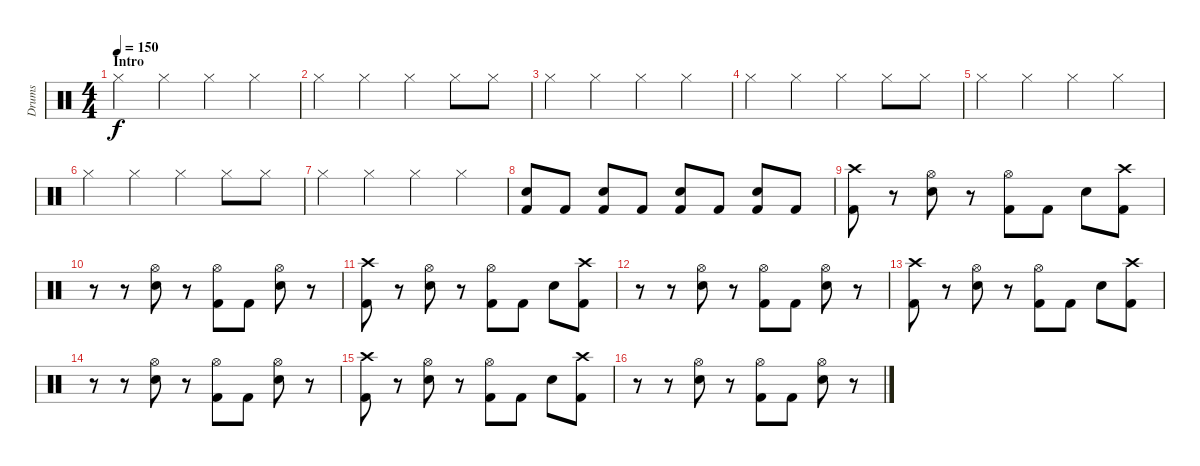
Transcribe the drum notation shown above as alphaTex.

\track ("Drums" "Drums") {instrument percussion}
\staff {score}
\articulation defaults
\ts (4 4)
\section ("" "Intro")
\tempo 150
\clef neutral
\ks c "Hi-Hat (closed)".4{dy f} "Hi-Hat (closed)".4 "Hi-Hat (closed)".4 "Hi-Hat (closed)".4
|
"Hi-Hat (closed)".4 "Hi-Hat (closed)".4 "Hi-Hat (closed)".4 "Hi-Hat (closed)".8 "Hi-Hat (closed)".8 |
"Hi-Hat (closed)".4 "Hi-Hat (closed)".4 "Hi-Hat (closed)".4 "Hi-Hat (closed)".4 |
"Hi-Hat (closed)".4 "Hi-Hat (closed)".4 "Hi-Hat (closed)".4 "Hi-Hat (closed)".8 "Hi-Hat (closed)".8 |
"Hi-Hat (closed)".4 "Hi-Hat (closed)".4 "Hi-Hat (closed)".4 "Hi-Hat (closed)".4 |
"Hi-Hat (closed)".4 "Hi-Hat (closed)".4 "Hi-Hat (closed)".4 "Hi-Hat (closed)".8 "Hi-Hat (closed)".8 |
"Hi-Hat (closed)".4 "Hi-Hat (closed)".4 "Hi-Hat (closed)".4 "Hi-Hat (closed)".4 |
("Electric Snare (hit)" "Kick (hit) 2").8 "Kick (hit) 2".8 ("Electric Snare (hit)" "Kick (hit) 2").8 "Kick (hit) 2".8 ("Electric Snare (hit)" "Kick (hit) 2").8 "Kick (hit) 2".8 ("Electric Snare (hit)" "Kick (hit) 2").8 "Kick (hit) 2".8 |
("Crash high (hit)" "Kick (hit) 2").8 r.8 ("Hi-Hat (open)" "Electric Snare (hit)").8 r.8 ("Hi-Hat (open)" "Kick (hit) 2").8 "Kick (hit) 2".8 "Electric Snare (hit)".8 ("Crash high (hit)" "Kick (hit) 2").8 |
r.8 r.8 ("Hi-Hat (open)" "Electric Snare (hit)").8 r.8 ("Hi-Hat (open)" "Kick (hit) 2").8 "Kick (hit) 2".8 ("Hi-Hat (open)" "Electric Snare (hit)").8 r.8 |
("Crash high (hit)" "Kick (hit) 2").8 r.8 ("Hi-Hat (open)" "Electric Snare (hit)").8 r.8 ("Hi-Hat (open)" "Kick (hit) 2").8 "Kick (hit) 2".8 "Electric Snare (hit)".8 ("Crash high (hit)" "Kick (hit) 2").8 |
r.8 r.8 ("Hi-Hat (open)" "Electric Snare (hit)").8 r.8 ("Hi-Hat (open)" "Kick (hit) 2").8 "Kick (hit) 2".8 ("Hi-Hat (open)" "Electric Snare (hit)").8 r.8 |
("Crash high (hit)" "Kick (hit) 2").8 r.8 ("Hi-Hat (open)" "Electric Snare (hit)").8 r.8 ("Hi-Hat (open)" "Kick (hit) 2").8 "Kick (hit) 2".8 "Electric Snare (hit)".8 ("Crash high (hit)" "Kick (hit) 2").8 |
r.8 r.8 ("Hi-Hat (open)" "Electric Snare (hit)").8 r.8 ("Hi-Hat (open)" "Kick (hit) 2").8 "Kick (hit) 2".8 ("Hi-Hat (open)" "Electric Snare (hit)").8 r.8 |
("Crash high (hit)" "Kick (hit) 2").8 r.8 ("Hi-Hat (open)" "Electric Snare (hit)").8 r.8 ("Hi-Hat (open)" "Kick (hit) 2").8 "Kick (hit) 2".8 "Electric Snare (hit)".8 ("Crash high (hit)" "Kick (hit) 2").8 |
r.8 r.8 ("Hi-Hat (open)" "Electric Snare (hit)").8 r.8 ("Hi-Hat (open)" "Kick (hit) 2").8 "Kick (hit) 2".8 ("Hi-Hat (open)" "Electric Snare (hit)").8 r.8
